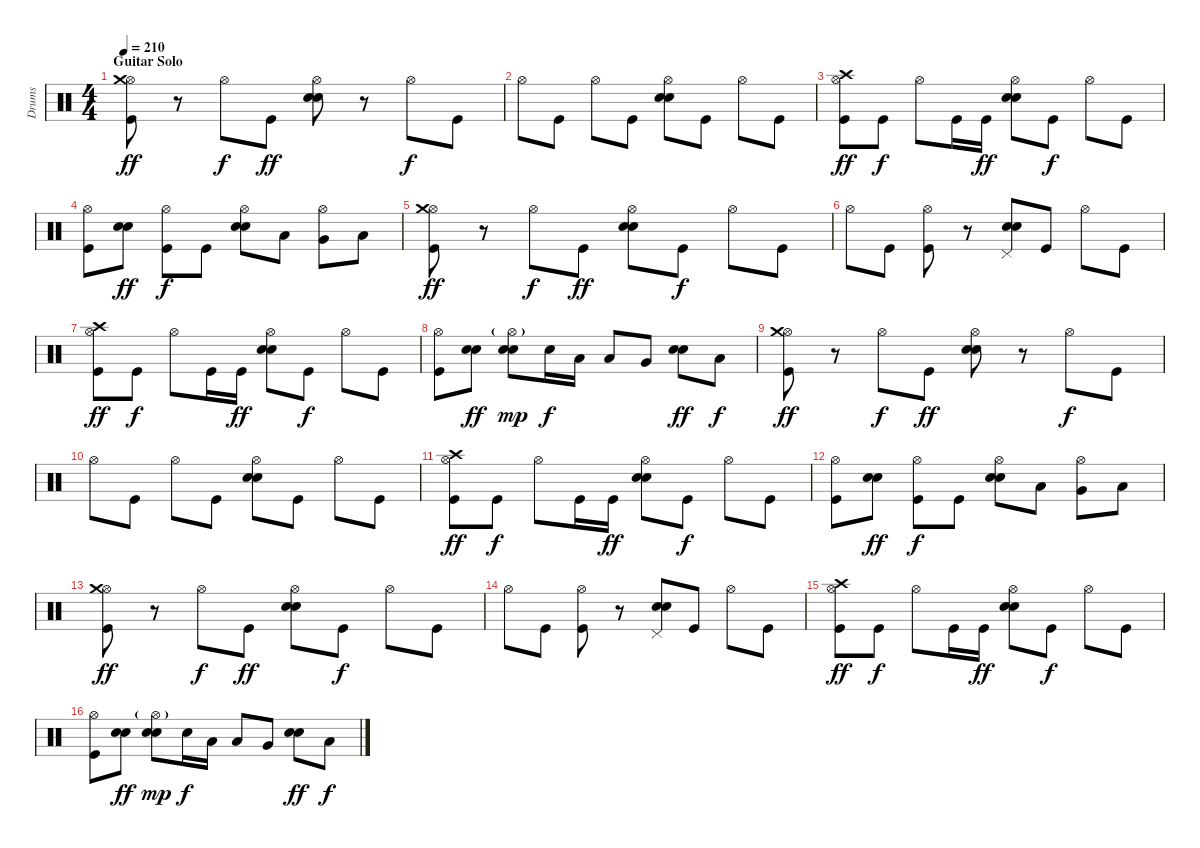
\track ("Drums" "Drums") {instrument percussion}
\staff {score}
\articulation defaults
\ts (4 4)
\section ("" "Guitar Solo")
\tempo 210
\clef neutral
\ks c
("Kick (hit)" "Hi-Hat (open)" "Crash medium (hit)").8{dy ff} r.8 "Hi-Hat (open)".8{dy f} "Kick (hit)".8{dy ff} ("Electric Snare (hit)" "Electric Snare (hit)" "Hi-Hat (open)").8 r.8 "Hi-Hat (open)".8{dy f} "Kick (hit)".8 |
"Hi-Hat (open)".8 "Kick (hit)".8 "Hi-Hat (open)".8 "Kick (hit)".8 ("Electric Snare (hit)" "Electric Snare (hit)" "Hi-Hat (open)").8 "Kick (hit)".8 "Hi-Hat (open)".8 "Kick (hit)".8 |
("Kick (hit)" "Hi-Hat (open)" "Crash high (hit)").8{dy ff} "Kick (hit)".8{dy f} "Hi-Hat (open)".8 "Kick (hit)".16 "Kick (hit)".16{dy ff} ("Electric Snare (hit)" "Electric Snare (hit)" "Hi-Hat (open)").8 "Kick (hit)".8{dy f} "Hi-Hat (open)".8 "Kick (hit)".8 |
("Kick (hit)" "Hi-Hat (open)").8 ("Electric Snare (hit)" "Electric Snare (hit)").8{dy ff} ("Kick (hit)" "Hi-Hat (open)").8{dy f} "Kick (hit)".8 ("Electric Snare (hit)" "Electric Snare (hit)" "Hi-Hat (open)").8 "Low Tom (hit)".8 ("Very Low Tom (hit)" "Hi-Hat (open)").8 "Low Floor Tom (hit)".8 |
("Kick (hit)" "Hi-Hat (open)" "Crash medium (hit)").8{dy ff} r.8 "Hi-Hat (open)".8{dy f} "Kick (hit)".8{dy ff} ("Electric Snare (hit)" "Electric Snare (hit)" "Hi-Hat (open)").8 "Kick (hit)".8{dy f} "Hi-Hat (open)".8 "Kick (hit)".8 |
"Hi-Hat (open)".8 "Kick (hit)".8 ("Kick (hit)" "Hi-Hat (open)").8 r.8 ("Electric Snare (hit)" "Electric Snare (hit)" "Pedal Hi-Hat (hit)").8 "Kick (hit)".8 "Hi-Hat (open)".8 "Kick (hit)".8 |
("Kick (hit)" "Hi-Hat (open)" "Crash high (hit)").8{dy ff} "Kick (hit)".8{dy f} "Hi-Hat (open)".8 "Kick (hit)".16 "Kick (hit)".16{dy ff} ("Electric Snare (hit)" "Electric Snare (hit)" "Hi-Hat (open)").8 "Kick (hit)".8{dy f} "Hi-Hat (open)".8 "Kick (hit)".8 |
("Kick (hit)" "Hi-Hat (open)").8 ("Electric Snare (hit)" "Electric Snare (hit)").8{dy ff} ("Electric Snare (hit)" "Electric Snare (hit)" "Hi-Hat (open)"{g}).8{dy mp} "Electric Snare (hit)".16{dy f} "Low Tom (hit)".16 "Low Tom (hit)".8 "Very Low Tom (hit)".8 ("Electric Snare (hit)" "Electric Snare (hit)").8{dy ff} "Low Floor Tom (hit)".8{dy f} |
("Kick (hit)" "Hi-Hat (open)" "Crash medium (hit)").8{dy ff} r.8 "Hi-Hat (open)".8{dy f} "Kick (hit)".8{dy ff} ("Electric Snare (hit)" "Electric Snare (hit)" "Hi-Hat (open)").8 r.8 "Hi-Hat (open)".8{dy f} "Kick (hit)".8 |
"Hi-Hat (open)".8 "Kick (hit)".8 "Hi-Hat (open)".8 "Kick (hit)".8 ("Electric Snare (hit)" "Electric Snare (hit)" "Hi-Hat (open)").8 "Kick (hit)".8 "Hi-Hat (open)".8 "Kick (hit)".8 |
("Kick (hit)" "Hi-Hat (open)" "Crash high (hit)").8{dy ff} "Kick (hit)".8{dy f} "Hi-Hat (open)".8 "Kick (hit)".16 "Kick (hit)".16{dy ff} ("Electric Snare (hit)" "Electric Snare (hit)" "Hi-Hat (open)").8 "Kick (hit)".8{dy f} "Hi-Hat (open)".8 "Kick (hit)".8 |
("Kick (hit)" "Hi-Hat (open)").8 ("Electric Snare (hit)" "Electric Snare (hit)").8{dy ff} ("Kick (hit)" "Hi-Hat (open)").8{dy f} "Kick (hit)".8 ("Electric Snare (hit)" "Electric Snare (hit)" "Hi-Hat (open)").8 "Low Tom (hit)".8 ("Very Low Tom (hit)" "Hi-Hat (open)").8 "Low Floor Tom (hit)".8 |
("Kick (hit)" "Hi-Hat (open)" "Crash medium (hit)").8{dy ff} r.8 "Hi-Hat (open)".8{dy f} "Kick (hit)".8{dy ff} ("Electric Snare (hit)" "Electric Snare (hit)" "Hi-Hat (open)").8 "Kick (hit)".8{dy f} "Hi-Hat (open)".8 "Kick (hit)".8 |
"Hi-Hat (open)".8 "Kick (hit)".8 ("Kick (hit)" "Hi-Hat (open)").8 r.8 ("Electric Snare (hit)" "Electric Snare (hit)" "Pedal Hi-Hat (hit)").8 "Kick (hit)".8 "Hi-Hat (open)".8 "Kick (hit)".8 |
("Kick (hit)" "Hi-Hat (open)" "Crash high (hit)").8{dy ff} "Kick (hit)".8{dy f} "Hi-Hat (open)".8 "Kick (hit)".16 "Kick (hit)".16{dy ff} ("Electric Snare (hit)" "Electric Snare (hit)" "Hi-Hat (open)").8 "Kick (hit)".8{dy f} "Hi-Hat (open)".8 "Kick (hit)".8 |
("Kick (hit)" "Hi-Hat (open)").8 ("Electric Snare (hit)" "Electric Snare (hit)").8{dy ff} ("Electric Snare (hit)" "Electric Snare (hit)" "Hi-Hat (open)"{g}).8{dy mp} "Electric Snare (hit)".16{dy f} "Low Tom (hit)".16 "Low Tom (hit)".8 "Very Low Tom (hit)".8 ("Electric Snare (hit)" "Electric Snare (hit)").8{dy ff} "Low Floor Tom (hit)".8{dy f}
